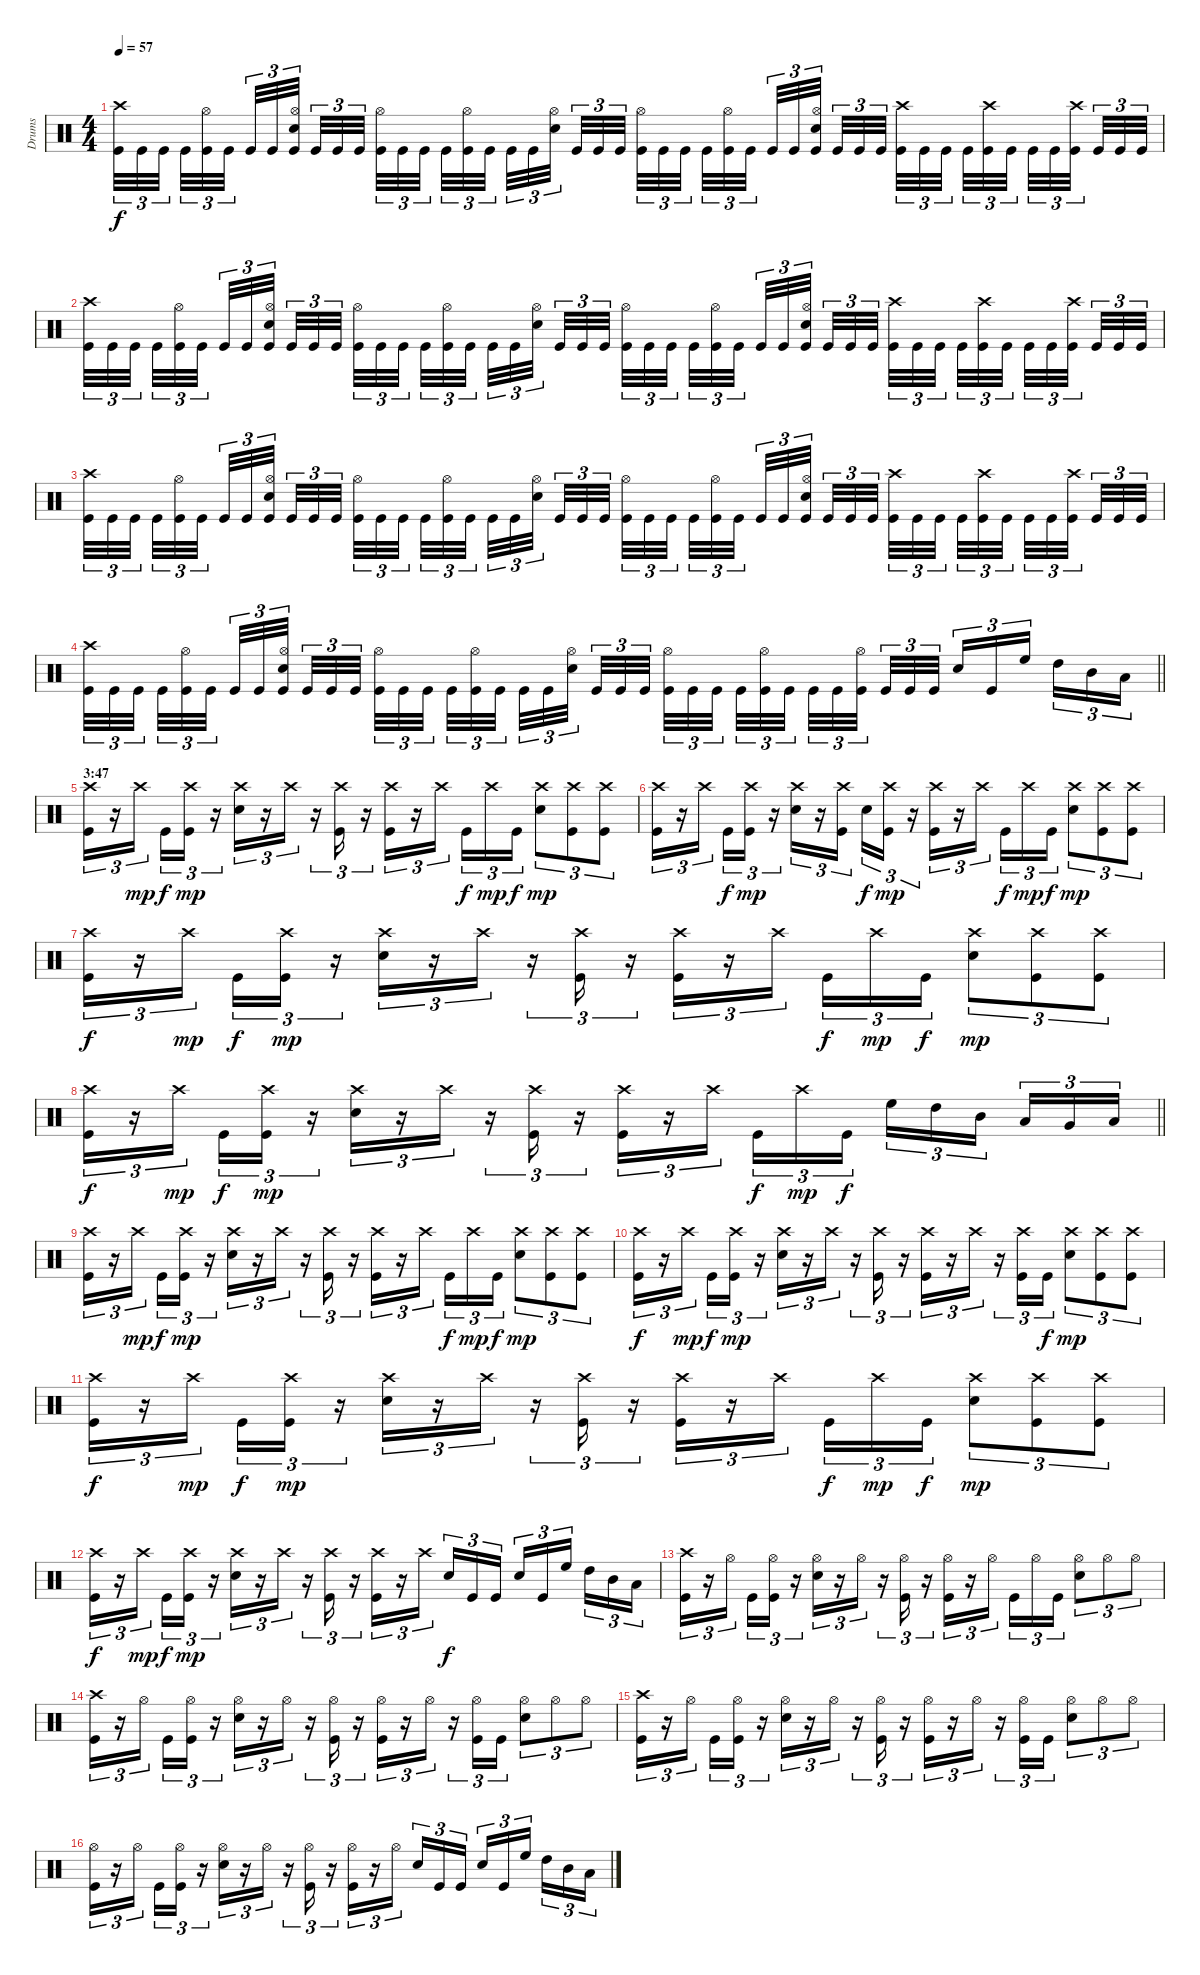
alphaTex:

\track ("Drums" "Drums") {instrument percussion}
\staff {score}
\articulation defaults
\ts (4 4)
\tempo 57
\clef neutral
\ks c
("Kick (hit)" "Crash high (hit)").32{tu (3 2) dy f} "Kick (hit)".32{tu (3 2)} "Kick (hit)".32{tu (3 2) beam splitsecondary} "Kick (hit)".32{tu (3 2)} ("Kick (hit)" "Hi-Hat (open)").32{tu (3 2)} "Kick (hit)".32{tu (3 2) beam splitsecondary} "Kick (hit)".32{tu (3 2)} "Kick (hit)".32{tu (3 2)} ("Kick (hit)" "Snare (hit) 2" "Hi-Hat (open)").32{tu (3 2) beam splitsecondary} "Kick (hit)".32{tu (3 2)} "Kick (hit)".32{tu (3 2)} "Kick (hit)".32{tu (3 2)} ("Kick (hit)" "Hi-Hat (open)").32{tu (3 2)} "Kick (hit)".32{tu (3 2)} "Kick (hit)".32{tu (3 2) beam splitsecondary} "Kick (hit)".32{tu (3 2)} ("Kick (hit)" "Hi-Hat (open)").32{tu (3 2)} "Kick (hit)".32{tu (3 2) beam splitsecondary} "Kick (hit)".32{tu (3 2)} "Kick (hit)".32{tu (3 2)} ("Snare (hit) 2" "Hi-Hat (open)").32{tu (3 2) beam splitsecondary} "Kick (hit)".32{tu (3 2)} "Kick (hit)".32{tu (3 2)} "Kick (hit)".32{tu (3 2)} ("Kick (hit)" "Hi-Hat (open)").32{tu (3 2)} "Kick (hit)".32{tu (3 2)} "Kick (hit)".32{tu (3 2) beam splitsecondary} "Kick (hit)".32{tu (3 2)} ("Kick (hit)" "Hi-Hat (open)").32{tu (3 2)} "Kick (hit)".32{tu (3 2) beam splitsecondary} "Kick (hit)".32{tu (3 2)} "Kick (hit)".32{tu (3 2)} ("Kick (hit)" "Snare (hit) 2" "Hi-Hat (open)").32{tu (3 2) beam splitsecondary} "Kick (hit)".32{tu (3 2)} "Kick (hit)".32{tu (3 2)} "Kick (hit)".32{tu (3 2)} ("Crash high (hit)" "Kick (hit)").32{tu (3 2)} "Kick (hit)".32{tu (3 2)} "Kick (hit)".32{tu (3 2) beam splitsecondary} "Kick (hit)".32{tu (3 2)} ("Kick (hit)" "Crash high (hit)").32{tu (3 2)} "Kick (hit)".32{tu (3 2) beam splitsecondary} "Kick (hit)".32{tu (3 2)} "Kick (hit)".32{tu (3 2)} ("Kick (hit)" "Crash high (hit)").32{tu (3 2) beam splitsecondary} "Kick (hit)".32{tu (3 2)} "Kick (hit)".32{tu (3 2)} "Kick (hit)".32{tu (3 2)} |
("Kick (hit)" "Crash high (hit)").32{tu (3 2)} "Kick (hit)".32{tu (3 2)} "Kick (hit)".32{tu (3 2) beam splitsecondary} "Kick (hit)".32{tu (3 2)} ("Kick (hit)" "Hi-Hat (open)").32{tu (3 2)} "Kick (hit)".32{tu (3 2) beam splitsecondary} "Kick (hit)".32{tu (3 2)} "Kick (hit)".32{tu (3 2)} ("Kick (hit)" "Snare (hit) 2" "Hi-Hat (open)").32{tu (3 2) beam splitsecondary} "Kick (hit)".32{tu (3 2)} "Kick (hit)".32{tu (3 2)} "Kick (hit)".32{tu (3 2)} ("Kick (hit)" "Hi-Hat (open)").32{tu (3 2)} "Kick (hit)".32{tu (3 2)} "Kick (hit)".32{tu (3 2) beam splitsecondary} "Kick (hit)".32{tu (3 2)} ("Kick (hit)" "Hi-Hat (open)").32{tu (3 2)} "Kick (hit)".32{tu (3 2) beam splitsecondary} "Kick (hit)".32{tu (3 2)} "Kick (hit)".32{tu (3 2)} ("Snare (hit) 2" "Hi-Hat (open)").32{tu (3 2) beam splitsecondary} "Kick (hit)".32{tu (3 2)} "Kick (hit)".32{tu (3 2)} "Kick (hit)".32{tu (3 2)} ("Kick (hit)" "Hi-Hat (open)").32{tu (3 2)} "Kick (hit)".32{tu (3 2)} "Kick (hit)".32{tu (3 2) beam splitsecondary} "Kick (hit)".32{tu (3 2)} ("Kick (hit)" "Hi-Hat (open)").32{tu (3 2)} "Kick (hit)".32{tu (3 2) beam splitsecondary} "Kick (hit)".32{tu (3 2)} "Kick (hit)".32{tu (3 2)} ("Kick (hit)" "Snare (hit) 2" "Hi-Hat (open)").32{tu (3 2) beam splitsecondary} "Kick (hit)".32{tu (3 2)} "Kick (hit)".32{tu (3 2)} "Kick (hit)".32{tu (3 2)} ("Crash high (hit)" "Kick (hit)").32{tu (3 2)} "Kick (hit)".32{tu (3 2)} "Kick (hit)".32{tu (3 2) beam splitsecondary} "Kick (hit)".32{tu (3 2)} ("Kick (hit)" "Crash high (hit)").32{tu (3 2)} "Kick (hit)".32{tu (3 2) beam splitsecondary} "Kick (hit)".32{tu (3 2)} "Kick (hit)".32{tu (3 2)} ("Kick (hit)" "Crash high (hit)").32{tu (3 2) beam splitsecondary} "Kick (hit)".32{tu (3 2)} "Kick (hit)".32{tu (3 2)} "Kick (hit)".32{tu (3 2)} |
("Kick (hit)" "Crash high (hit)").32{tu (3 2)} "Kick (hit)".32{tu (3 2)} "Kick (hit)".32{tu (3 2) beam splitsecondary} "Kick (hit)".32{tu (3 2)} ("Kick (hit)" "Hi-Hat (open)").32{tu (3 2)} "Kick (hit)".32{tu (3 2) beam splitsecondary} "Kick (hit)".32{tu (3 2)} "Kick (hit)".32{tu (3 2)} ("Kick (hit)" "Snare (hit) 2" "Hi-Hat (open)").32{tu (3 2) beam splitsecondary} "Kick (hit)".32{tu (3 2)} "Kick (hit)".32{tu (3 2)} "Kick (hit)".32{tu (3 2)} ("Kick (hit)" "Hi-Hat (open)").32{tu (3 2)} "Kick (hit)".32{tu (3 2)} "Kick (hit)".32{tu (3 2) beam splitsecondary} "Kick (hit)".32{tu (3 2)} ("Kick (hit)" "Hi-Hat (open)").32{tu (3 2)} "Kick (hit)".32{tu (3 2) beam splitsecondary} "Kick (hit)".32{tu (3 2)} "Kick (hit)".32{tu (3 2)} ("Snare (hit) 2" "Hi-Hat (open)").32{tu (3 2) beam splitsecondary} "Kick (hit)".32{tu (3 2)} "Kick (hit)".32{tu (3 2)} "Kick (hit)".32{tu (3 2)} ("Kick (hit)" "Hi-Hat (open)").32{tu (3 2)} "Kick (hit)".32{tu (3 2)} "Kick (hit)".32{tu (3 2) beam splitsecondary} "Kick (hit)".32{tu (3 2)} ("Kick (hit)" "Hi-Hat (open)").32{tu (3 2)} "Kick (hit)".32{tu (3 2) beam splitsecondary} "Kick (hit)".32{tu (3 2)} "Kick (hit)".32{tu (3 2)} ("Kick (hit)" "Snare (hit) 2" "Hi-Hat (open)").32{tu (3 2) beam splitsecondary} "Kick (hit)".32{tu (3 2)} "Kick (hit)".32{tu (3 2)} "Kick (hit)".32{tu (3 2)} ("Crash high (hit)" "Kick (hit)").32{tu (3 2)} "Kick (hit)".32{tu (3 2)} "Kick (hit)".32{tu (3 2) beam splitsecondary} "Kick (hit)".32{tu (3 2)} ("Kick (hit)" "Crash high (hit)").32{tu (3 2)} "Kick (hit)".32{tu (3 2) beam splitsecondary} "Kick (hit)".32{tu (3 2)} "Kick (hit)".32{tu (3 2)} ("Kick (hit)" "Crash high (hit)").32{tu (3 2) beam splitsecondary} "Kick (hit)".32{tu (3 2)} "Kick (hit)".32{tu (3 2)} "Kick (hit)".32{tu (3 2)} |
\barLineRight lightlight
("Kick (hit)" "Crash high (hit)").32{tu (3 2)} "Kick (hit)".32{tu (3 2)} "Kick (hit)".32{tu (3 2) beam splitsecondary} "Kick (hit)".32{tu (3 2)} ("Kick (hit)" "Hi-Hat (open)").32{tu (3 2)} "Kick (hit)".32{tu (3 2) beam splitsecondary} "Kick (hit)".32{tu (3 2)} "Kick (hit)".32{tu (3 2)} ("Kick (hit)" "Snare (hit) 2" "Hi-Hat (open)").32{tu (3 2) beam splitsecondary} "Kick (hit)".32{tu (3 2)} "Kick (hit)".32{tu (3 2)} "Kick (hit)".32{tu (3 2)} ("Kick (hit)" "Hi-Hat (open)").32{tu (3 2)} "Kick (hit)".32{tu (3 2)} "Kick (hit)".32{tu (3 2) beam splitsecondary} "Kick (hit)".32{tu (3 2)} ("Kick (hit)" "Hi-Hat (open)").32{tu (3 2)} "Kick (hit)".32{tu (3 2) beam splitsecondary} "Kick (hit)".32{tu (3 2)} "Kick (hit)".32{tu (3 2)} ("Snare (hit) 2" "Hi-Hat (open)").32{tu (3 2) beam splitsecondary} "Kick (hit)".32{tu (3 2)} "Kick (hit)".32{tu (3 2)} "Kick (hit)".32{tu (3 2)} ("Kick (hit)" "Hi-Hat (open)").32{tu (3 2)} "Kick (hit)".32{tu (3 2)} "Kick (hit)".32{tu (3 2) beam splitsecondary} "Kick (hit)".32{tu (3 2)} ("Kick (hit)" "Hi-Hat (open)").32{tu (3 2)} "Kick (hit)".32{tu (3 2) beam splitsecondary} "Kick (hit)".32{tu (3 2)} "Kick (hit)".32{tu (3 2)} ("Kick (hit)" "Hi-Hat (open)").32{tu (3 2) beam splitsecondary} "Kick (hit)".32{tu (3 2)} "Kick (hit)".32{tu (3 2)} "Kick (hit)".32{tu (3 2)} "Snare (hit) 2".16{tu (3 2)} "Kick (hit)".16{tu (3 2)} "High Floor Tom (hit)".16{tu (3 2) beam splitsecondary} "High Tom (hit)".16{tu (3 2)} "Mid Tom (hit)".16{tu (3 2)} "Low Tom (hit)".16{tu (3 2)} |
\section ("" "3:47")
("Crash high (hit)" "Kick (hit)").16{tu (3 2)} r.16{tu (3 2)} "Crash high (hit)".16{tu (3 2) dy mp beam splitsecondary} "Kick (hit)".16{tu (3 2) dy f} ("Kick (hit)" "Crash high (hit)").16{tu (3 2) dy mp} r.16{tu (3 2)} ("Snare (hit) 2" "Crash high (hit)").16{tu (3 2)} r.16{tu (3 2)} "Crash high (hit)".16{tu (3 2)} r.16{tu (3 2)} ("Kick (hit)" "Crash high (hit)").16{tu (3 2)} r.16{tu (3 2)} ("Kick (hit)" "Crash high (hit)").16{tu (3 2)} r.16{tu (3 2)} "Crash high (hit)".16{tu (3 2) beam splitsecondary} "Kick (hit)".16{tu (3 2) dy f} "Crash high (hit)".16{tu (3 2) dy mp} "Kick (hit)".16{tu (3 2) dy f} ("Snare (hit) 2" "Crash high (hit)").8{tu (3 2) dy mp} ("Kick (hit)" "Crash high (hit)").8{tu (3 2)} ("Kick (hit)" "Crash high (hit)").8{tu (3 2)} |
("Crash high (hit)" "Kick (hit)").16{tu (3 2)} r.16{tu (3 2)} "Crash high (hit)".16{tu (3 2) beam splitsecondary} "Kick (hit)".16{tu (3 2) dy f} ("Kick (hit)" "Crash high (hit)").16{tu (3 2) dy mp} r.16{tu (3 2)} ("Snare (hit) 2" "Crash high (hit)").16{tu (3 2)} r.16{tu (3 2)} ("Kick (hit)" "Crash high (hit)").16{tu (3 2) beam splitsecondary} "Snare (hit) 2".16{tu (3 2) dy f} ("Kick (hit)" "Crash high (hit)").16{tu (3 2) dy mp} r.16{tu (3 2)} ("Kick (hit)" "Crash high (hit)").16{tu (3 2)} r.16{tu (3 2)} "Crash high (hit)".16{tu (3 2) beam splitsecondary} "Kick (hit)".16{tu (3 2) dy f} "Crash high (hit)".16{tu (3 2) dy mp} "Kick (hit)".16{tu (3 2) dy f} ("Snare (hit) 2" "Crash high (hit)").8{tu (3 2) dy mp} ("Kick (hit)" "Crash high (hit)").8{tu (3 2)} ("Kick (hit)" "Crash high (hit)").8{tu (3 2)} |
("Crash high (hit)" "Kick (hit)").16{tu (3 2) dy f} r.16{tu (3 2)} "Crash high (hit)".16{tu (3 2) dy mp beam splitsecondary} "Kick (hit)".16{tu (3 2) dy f} ("Kick (hit)" "Crash high (hit)").16{tu (3 2) dy mp} r.16{tu (3 2)} ("Snare (hit) 2" "Crash high (hit)").16{tu (3 2)} r.16{tu (3 2)} "Crash high (hit)".16{tu (3 2)} r.16{tu (3 2)} ("Kick (hit)" "Crash high (hit)").16{tu (3 2)} r.16{tu (3 2)} ("Kick (hit)" "Crash high (hit)").16{tu (3 2)} r.16{tu (3 2)} "Crash high (hit)".16{tu (3 2) beam splitsecondary} "Kick (hit)".16{tu (3 2) dy f} "Crash high (hit)".16{tu (3 2) dy mp} "Kick (hit)".16{tu (3 2) dy f} ("Snare (hit) 2" "Crash high (hit)").8{tu (3 2) dy mp} ("Kick (hit)" "Crash high (hit)").8{tu (3 2)} ("Kick (hit)" "Crash high (hit)").8{tu (3 2)} |
\barLineRight lightlight
("Crash high (hit)" "Kick (hit)").16{tu (3 2) dy f} r.16{tu (3 2)} "Crash high (hit)".16{tu (3 2) dy mp beam splitsecondary} "Kick (hit)".16{tu (3 2) dy f} ("Kick (hit)" "Crash high (hit)").16{tu (3 2) dy mp} r.16{tu (3 2)} ("Snare (hit) 2" "Crash high (hit)").16{tu (3 2)} r.16{tu (3 2)} "Crash high (hit)".16{tu (3 2)} r.16{tu (3 2)} ("Kick (hit)" "Crash high (hit)").16{tu (3 2)} r.16{tu (3 2)} ("Kick (hit)" "Crash high (hit)").16{tu (3 2)} r.16{tu (3 2)} "Crash high (hit)".16{tu (3 2) beam splitsecondary} "Kick (hit)".16{tu (3 2) dy f} "Crash high (hit)".16{tu (3 2) dy mp} "Kick (hit)".16{tu (3 2) dy f} "High Floor Tom (hit)".16{tu (3 2)} "High Tom (hit)".16{tu (3 2)} "Mid Tom (hit)".16{tu (3 2) beam splitsecondary} "Low Tom (hit)".16{tu (3 2)} "Very Low Tom (hit)".16{tu (3 2)} "Low Floor Tom (hit)".16{tu (3 2)} |
("Crash high (hit)" "Kick (hit)").16{tu (3 2)} r.16{tu (3 2)} "Crash high (hit)".16{tu (3 2) dy mp beam splitsecondary} "Kick (hit)".16{tu (3 2) dy f} ("Kick (hit)" "Crash high (hit)").16{tu (3 2) dy mp} r.16{tu (3 2)} ("Snare (hit) 2" "Crash high (hit)").16{tu (3 2)} r.16{tu (3 2)} "Crash high (hit)".16{tu (3 2)} r.16{tu (3 2)} ("Kick (hit)" "Crash high (hit)").16{tu (3 2)} r.16{tu (3 2)} ("Kick (hit)" "Crash high (hit)").16{tu (3 2)} r.16{tu (3 2)} "Crash high (hit)".16{tu (3 2) beam splitsecondary} "Kick (hit)".16{tu (3 2) dy f} "Crash high (hit)".16{tu (3 2) dy mp} "Kick (hit)".16{tu (3 2) dy f} ("Snare (hit) 2" "Crash high (hit)").8{tu (3 2) dy mp} ("Kick (hit)" "Crash high (hit)").8{tu (3 2)} ("Kick (hit)" "Crash high (hit)").8{tu (3 2)} |
("Crash high (hit)" "Kick (hit)").16{tu (3 2) dy f} r.16{tu (3 2)} "Crash high (hit)".16{tu (3 2) dy mp beam splitsecondary} "Kick (hit)".16{tu (3 2) dy f} ("Kick (hit)" "Crash high (hit)").16{tu (3 2) dy mp} r.16{tu (3 2)} ("Snare (hit) 2" "Crash high (hit)").16{tu (3 2)} r.16{tu (3 2)} "Crash high (hit)".16{tu (3 2)} r.16{tu (3 2)} ("Kick (hit)" "Crash high (hit)").16{tu (3 2)} r.16{tu (3 2)} ("Kick (hit)" "Crash high (hit)").16{tu (3 2)} r.16{tu (3 2)} "Crash high (hit)".16{tu (3 2)} r.16{tu (3 2)} ("Crash high (hit)" "Kick (hit)").16{tu (3 2)} "Kick (hit)".16{tu (3 2) dy f} ("Snare (hit) 2" "Crash high (hit)").8{tu (3 2) dy mp} ("Kick (hit)" "Crash high (hit)").8{tu (3 2)} ("Kick (hit)" "Crash high (hit)").8{tu (3 2)} |
("Crash high (hit)" "Kick (hit)").16{tu (3 2) dy f} r.16{tu (3 2)} "Crash high (hit)".16{tu (3 2) dy mp beam splitsecondary} "Kick (hit)".16{tu (3 2) dy f} ("Kick (hit)" "Crash high (hit)").16{tu (3 2) dy mp} r.16{tu (3 2)} ("Snare (hit) 2" "Crash high (hit)").16{tu (3 2)} r.16{tu (3 2)} "Crash high (hit)".16{tu (3 2)} r.16{tu (3 2)} ("Kick (hit)" "Crash high (hit)").16{tu (3 2)} r.16{tu (3 2)} ("Kick (hit)" "Crash high (hit)").16{tu (3 2)} r.16{tu (3 2)} "Crash high (hit)".16{tu (3 2) beam splitsecondary} "Kick (hit)".16{tu (3 2) dy f} "Crash high (hit)".16{tu (3 2) dy mp} "Kick (hit)".16{tu (3 2) dy f} ("Snare (hit) 2" "Crash high (hit)").8{tu (3 2) dy mp} ("Kick (hit)" "Crash high (hit)").8{tu (3 2)} ("Kick (hit)" "Crash high (hit)").8{tu (3 2)} |
("Crash high (hit)" "Kick (hit)").16{tu (3 2) dy f} r.16{tu (3 2)} "Crash high (hit)".16{tu (3 2) dy mp beam splitsecondary} "Kick (hit)".16{tu (3 2) dy f} ("Kick (hit)" "Crash high (hit)").16{tu (3 2) dy mp} r.16{tu (3 2)} ("Snare (hit) 2" "Crash high (hit)").16{tu (3 2)} r.16{tu (3 2)} "Crash high (hit)".16{tu (3 2)} r.16{tu (3 2)} ("Kick (hit)" "Crash high (hit)").16{tu (3 2)} r.16{tu (3 2)} ("Kick (hit)" "Crash high (hit)").16{tu (3 2)} r.16{tu (3 2)} "Crash high (hit)".16{tu (3 2) beam splitsecondary} "Snare (hit) 2".16{tu (3 2) dy f} "Kick (hit)".16{tu (3 2)} "Kick (hit)".16{tu (3 2)} "Snare (hit) 2".16{tu (3 2)} "Kick (hit)".16{tu (3 2)} "High Floor Tom (hit)".16{tu (3 2) beam splitsecondary} "High Tom (hit)".16{tu (3 2)} "Mid Tom (hit)".16{tu (3 2)} "Low Tom (hit)".16{tu (3 2)} |
("Crash high (hit)" "Kick (hit)").16{tu (3 2)} r.16{tu (3 2)} "Hi-Hat (open)".16{tu (3 2) beam splitsecondary} "Kick (hit)".16{tu (3 2)} ("Kick (hit)" "Hi-Hat (open)").16{tu (3 2)} r.16{tu (3 2)} ("Snare (hit) 2" "Hi-Hat (open)").16{tu (3 2)} r.16{tu (3 2)} "Hi-Hat (open)".16{tu (3 2)} r.16{tu (3 2)} ("Kick (hit)" "Hi-Hat (open)").16{tu (3 2)} r.16{tu (3 2)} ("Kick (hit)" "Hi-Hat (open)").16{tu (3 2)} r.16{tu (3 2)} "Hi-Hat (open)".16{tu (3 2) beam splitsecondary} "Kick (hit)".16{tu (3 2)} "Hi-Hat (open)".16{tu (3 2)} "Kick (hit)".16{tu (3 2)} ("Snare (hit) 2" "Hi-Hat (open)").8{tu (3 2)} "Hi-Hat (open)".8{tu (3 2)} "Hi-Hat (open)".8{tu (3 2)} |
("Crash high (hit)" "Kick (hit)").16{tu (3 2)} r.16{tu (3 2)} "Hi-Hat (open)".16{tu (3 2) beam splitsecondary} "Kick (hit)".16{tu (3 2)} ("Kick (hit)" "Hi-Hat (open)").16{tu (3 2)} r.16{tu (3 2)} ("Snare (hit) 2" "Hi-Hat (open)").16{tu (3 2)} r.16{tu (3 2)} "Hi-Hat (open)".16{tu (3 2)} r.16{tu (3 2)} ("Kick (hit)" "Hi-Hat (open)").16{tu (3 2)} r.16{tu (3 2)} ("Kick (hit)" "Hi-Hat (open)").16{tu (3 2)} r.16{tu (3 2)} "Hi-Hat (open)".16{tu (3 2)} r.16{tu (3 2)} ("Hi-Hat (open)" "Kick (hit)").16{tu (3 2)} "Kick (hit)".16{tu (3 2)} ("Snare (hit) 2" "Hi-Hat (open)").8{tu (3 2)} "Hi-Hat (open)".8{tu (3 2)} "Hi-Hat (open)".8{tu (3 2)} |
("Crash high (hit)" "Kick (hit)").16{tu (3 2)} r.16{tu (3 2)} "Hi-Hat (open)".16{tu (3 2) beam splitsecondary} "Kick (hit)".16{tu (3 2)} ("Kick (hit)" "Hi-Hat (open)").16{tu (3 2)} r.16{tu (3 2)} ("Snare (hit) 2" "Hi-Hat (open)").16{tu (3 2)} r.16{tu (3 2)} "Hi-Hat (open)".16{tu (3 2)} r.16{tu (3 2)} ("Kick (hit)" "Hi-Hat (open)").16{tu (3 2)} r.16{tu (3 2)} ("Kick (hit)" "Hi-Hat (open)").16{tu (3 2)} r.16{tu (3 2)} "Hi-Hat (open)".16{tu (3 2)} r.16{tu (3 2)} ("Hi-Hat (open)" "Kick (hit)").16{tu (3 2)} "Kick (hit)".16{tu (3 2)} ("Snare (hit) 2" "Hi-Hat (open)").8{tu (3 2)} "Hi-Hat (open)".8{tu (3 2)} "Hi-Hat (open)".8{tu (3 2)} |
("Kick (hit)" "Hi-Hat (open)").16{tu (3 2)} r.16{tu (3 2)} "Hi-Hat (open)".16{tu (3 2) beam splitsecondary} "Kick (hit)".16{tu (3 2)} ("Kick (hit)" "Hi-Hat (open)").16{tu (3 2)} r.16{tu (3 2)} ("Snare (hit) 2" "Hi-Hat (open)").16{tu (3 2)} r.16{tu (3 2)} "Hi-Hat (open)".16{tu (3 2)} r.16{tu (3 2)} ("Kick (hit)" "Hi-Hat (open)").16{tu (3 2)} r.16{tu (3 2)} ("Kick (hit)" "Hi-Hat (open)").16{tu (3 2)} r.16{tu (3 2)} "Hi-Hat (open)".16{tu (3 2) beam splitsecondary} "Snare (hit) 2".16{tu (3 2)} "Kick (hit)".16{tu (3 2)} "Kick (hit)".16{tu (3 2)} "Snare (hit) 2".16{tu (3 2)} "Kick (hit)".16{tu (3 2)} "High Floor Tom (hit)".16{tu (3 2) beam splitsecondary} "High Tom (hit)".16{tu (3 2)} "Mid Tom (hit)".16{tu (3 2)} "Low Tom (hit)".16{tu (3 2)}
